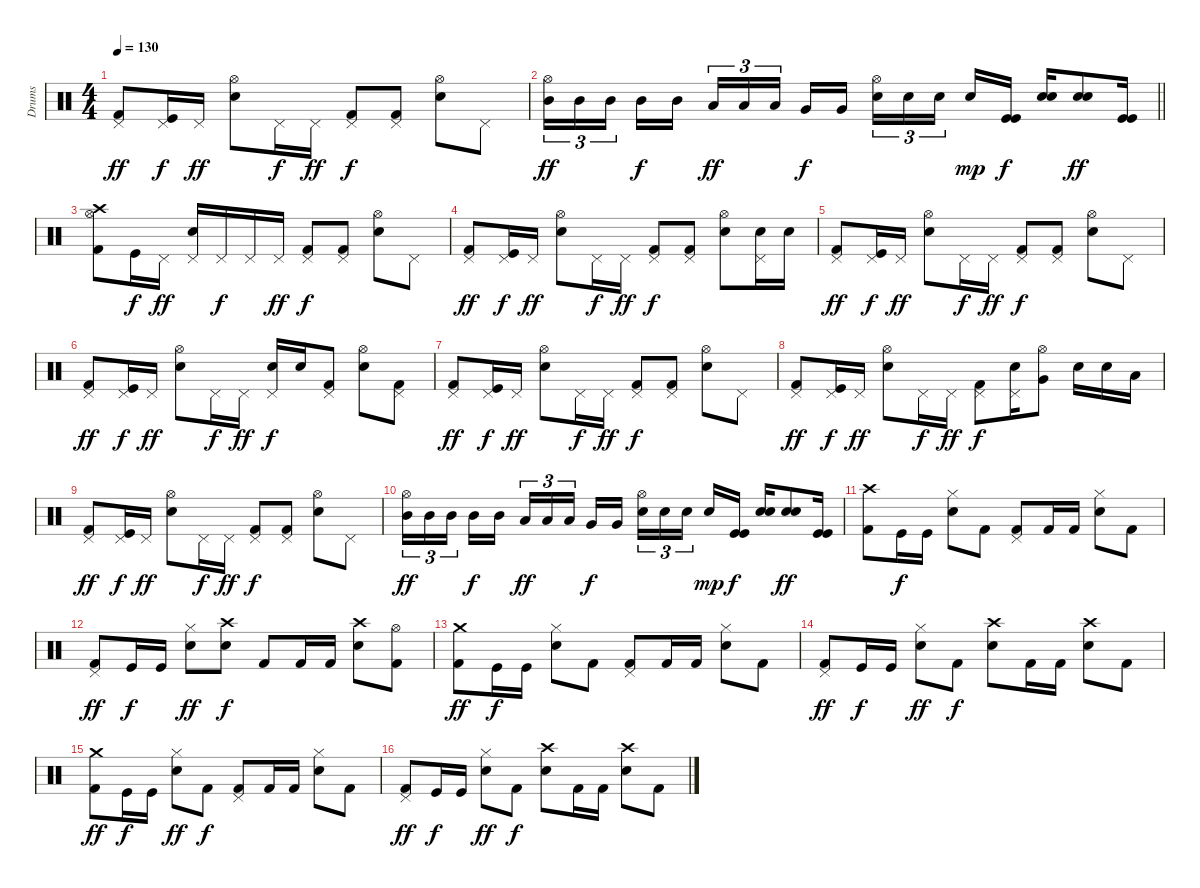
\track ("Drums" "Drums") {instrument percussion}
\staff {score}
\articulation defaults
\ts (4 4)
\tempo 130
\clef neutral
\ks c
("Pedal Hi-Hat (hit)" "Kick (hit) 2").8{dy ff} ("Pedal Hi-Hat (hit)" "Kick (hit)").16{dy f} "Pedal Hi-Hat (hit)".16{dy ff} ("Hi-Hat (open)" "Snare (hit) 2").8 "Pedal Hi-Hat (hit)".16{dy f} "Pedal Hi-Hat (hit)".16{dy ff} ("Pedal Hi-Hat (hit)" "Kick (hit) 2").8{dy f} ("Pedal Hi-Hat (hit)" "Kick (hit) 2").8 ("Hi-Hat (open)" "Snare (hit) 2").8 "Pedal Hi-Hat (hit)".8 |
\barLineRight lightlight
("Hi-Hat (open)" "Mid Tom (hit)").16{tu (3 2) dy ff} "Mid Tom (hit)".16{tu (3 2)} "Mid Tom (hit)".16{tu (3 2)} "Mid Tom (hit)".16{dy f} "Mid Tom (hit)".16 "Low Tom (hit)".16{tu (3 2) dy ff} "Low Tom (hit)".16{tu (3 2)} "Low Tom (hit)".16{tu (3 2)} "Very Low Tom (hit)".16{dy f} "Very Low Tom (hit)".16 ("Hi-Hat (open)" "Snare (hit) 2").16{tu (3 2)} "Snare (hit) 2".16{tu (3 2)} "Snare (hit) 2".16{tu (3 2)} "Snare (hit) 2".16{dy mp} ("Kick (hit)" "Kick (hit)").16{dy f} ("Snare (hit) 2" "Snare (hit) 2").16 ("Snare (hit) 2" "Snare (hit) 2").8{dy ff} ("Kick (hit)" "Kick (hit)").16 |
("Crash high (hit)" "Kick (hit) 2" "Hi-Hat (open)").8 "Kick (hit)".16{dy f} "Pedal Hi-Hat (hit)".16{dy ff} ("Pedal Hi-Hat (hit)" "Snare (hit) 2").16 "Pedal Hi-Hat (hit)".16{dy f} "Pedal Hi-Hat (hit)".16 "Pedal Hi-Hat (hit)".16{dy ff} ("Pedal Hi-Hat (hit)" "Kick (hit) 2").8{dy f} ("Pedal Hi-Hat (hit)" "Kick (hit) 2").8 ("Hi-Hat (open)" "Snare (hit) 2").8 "Pedal Hi-Hat (hit)".8 |
("Pedal Hi-Hat (hit)" "Kick (hit) 2").8{dy ff} ("Pedal Hi-Hat (hit)" "Kick (hit)").16{dy f} "Pedal Hi-Hat (hit)".16{dy ff} ("Hi-Hat (open)" "Snare (hit) 2").8 "Pedal Hi-Hat (hit)".16{dy f} "Pedal Hi-Hat (hit)".16{dy ff} ("Pedal Hi-Hat (hit)" "Kick (hit) 2").8{dy f} ("Pedal Hi-Hat (hit)" "Kick (hit) 2").8 ("Hi-Hat (open)" "Snare (hit) 2").8 ("Pedal Hi-Hat (hit)" "Snare (hit) 2").16 "Snare (hit) 2".16 |
("Pedal Hi-Hat (hit)" "Kick (hit) 2").8{dy ff} ("Pedal Hi-Hat (hit)" "Kick (hit)").16{dy f} "Pedal Hi-Hat (hit)".16{dy ff} ("Hi-Hat (open)" "Snare (hit) 2").8 "Pedal Hi-Hat (hit)".16{dy f} "Pedal Hi-Hat (hit)".16{dy ff} ("Pedal Hi-Hat (hit)" "Kick (hit) 2").8{dy f} ("Pedal Hi-Hat (hit)" "Kick (hit) 2").8 ("Hi-Hat (open)" "Snare (hit) 2").8 "Pedal Hi-Hat (hit)".8 |
("Pedal Hi-Hat (hit)" "Kick (hit) 2").8{dy ff} ("Pedal Hi-Hat (hit)" "Kick (hit)").16{dy f} "Pedal Hi-Hat (hit)".16{dy ff} ("Hi-Hat (open)" "Snare (hit) 2").8 "Pedal Hi-Hat (hit)".16{dy f} "Pedal Hi-Hat (hit)".16{dy ff} ("Pedal Hi-Hat (hit)" "Snare (hit) 2").16{dy f} "Snare (hit) 2".16 ("Pedal Hi-Hat (hit)" "Kick (hit) 2").8 ("Hi-Hat (open)" "Snare (hit) 2").8 ("Pedal Hi-Hat (hit)" "Kick (hit) 2").8 |
("Pedal Hi-Hat (hit)" "Kick (hit) 2").8{dy ff} ("Pedal Hi-Hat (hit)" "Kick (hit)").16{dy f} "Pedal Hi-Hat (hit)".16{dy ff} ("Hi-Hat (open)" "Snare (hit) 2").8 "Pedal Hi-Hat (hit)".16{dy f} "Pedal Hi-Hat (hit)".16{dy ff} ("Pedal Hi-Hat (hit)" "Kick (hit) 2").8{dy f} ("Pedal Hi-Hat (hit)" "Kick (hit) 2").8 ("Hi-Hat (open)" "Snare (hit) 2").8 "Pedal Hi-Hat (hit)".8 |
("Pedal Hi-Hat (hit)" "Kick (hit) 2").8{dy ff} ("Pedal Hi-Hat (hit)" "Kick (hit)").16{dy f} "Pedal Hi-Hat (hit)".16{dy ff} ("Hi-Hat (open)" "Snare (hit) 2").8 "Pedal Hi-Hat (hit)".16{dy f} "Pedal Hi-Hat (hit)".16{dy ff} ("Pedal Hi-Hat (hit)" "Kick (hit) 2").8{dy f} ("Pedal Hi-Hat (hit)" "Snare (hit) 2").16 ("Hi-Hat (open)" "Very Low Tom (hit)").8 "Snare (hit) 2".16 "Snare (hit) 2".16 "Low Floor Tom (hit)".16 |
("Pedal Hi-Hat (hit)" "Kick (hit) 2").8{dy ff} ("Pedal Hi-Hat (hit)" "Kick (hit)").16{dy f} "Pedal Hi-Hat (hit)".16{dy ff} ("Hi-Hat (open)" "Snare (hit) 2").8 "Pedal Hi-Hat (hit)".16{dy f} "Pedal Hi-Hat (hit)".16{dy ff} ("Pedal Hi-Hat (hit)" "Kick (hit) 2").8{dy f} ("Pedal Hi-Hat (hit)" "Kick (hit) 2").8 ("Hi-Hat (open)" "Snare (hit) 2").8 "Pedal Hi-Hat (hit)".8 |
("Hi-Hat (open)" "Mid Tom (hit)").16{tu (3 2) dy ff} "Mid Tom (hit)".16{tu (3 2)} "Mid Tom (hit)".16{tu (3 2)} "Mid Tom (hit)".16{dy f} "Mid Tom (hit)".16 "Low Tom (hit)".16{tu (3 2) dy ff} "Low Tom (hit)".16{tu (3 2)} "Low Tom (hit)".16{tu (3 2)} "Very Low Tom (hit)".16{dy f} "Very Low Tom (hit)".16 ("Hi-Hat (open)" "Snare (hit) 2").16{tu (3 2)} "Snare (hit) 2".16{tu (3 2)} "Snare (hit) 2".16{tu (3 2)} "Snare (hit) 2".16{dy mp} ("Kick (hit)" "Kick (hit)").16{dy f} ("Snare (hit) 2" "Snare (hit) 2").16 ("Snare (hit) 2" "Snare (hit) 2").8{dy ff} ("Kick (hit)" "Kick (hit)").16 |
("Crash high (hit)" "Kick (hit) 2").8 "Kick (hit)".16{dy f} "Kick (hit)".16 ("Hi-Hat (closed)" "Snare (hit) 2").8 "Kick (hit) 2".8 ("Pedal Hi-Hat (hit)" "Kick (hit) 2").8 "Kick (hit) 2".16 "Kick (hit) 2".16 ("Hi-Hat (closed)" "Snare (hit) 2").8 "Kick (hit) 2".8 |
("Pedal Hi-Hat (hit)" "Kick (hit) 2").8{dy ff} "Kick (hit)".16{dy f} "Kick (hit)".16 ("Hi-Hat (closed)" "Snare (hit) 2").8{dy ff} ("Crash high (hit)" "Snare (hit) 2").8{dy f} "Kick (hit) 2".8 "Kick (hit) 2".16 "Kick (hit) 2".16 ("Crash high (hit)" "Snare (hit) 2").8 ("Hi-Hat (open)" "Kick (hit) 2").8 |
("Crash medium (hit)" "Kick (hit) 2").8{dy ff} "Kick (hit)".16{dy f} "Kick (hit)".16 ("Hi-Hat (closed)" "Snare (hit) 2").8 "Kick (hit) 2".8 ("Pedal Hi-Hat (hit)" "Kick (hit) 2").8 "Kick (hit) 2".16 "Kick (hit) 2".16 ("Hi-Hat (closed)" "Snare (hit) 2").8 "Kick (hit) 2".8 |
("Pedal Hi-Hat (hit)" "Kick (hit) 2").8{dy ff} "Kick (hit)".16{dy f} "Kick (hit)".16 ("Hi-Hat (closed)" "Snare (hit) 2").8{dy ff} "Kick (hit) 2".8{dy f} ("Crash high (hit)" "Snare (hit) 2").8 "Kick (hit) 2".16 "Kick (hit) 2".16 ("Crash high (hit)" "Snare (hit) 2").8 "Kick (hit) 2".8 |
("Crash medium (hit)" "Kick (hit) 2").8{dy ff} "Kick (hit)".16{dy f} "Kick (hit)".16 ("Hi-Hat (closed)" "Snare (hit) 2").8{dy ff} "Kick (hit) 2".8{dy f} ("Pedal Hi-Hat (hit)" "Kick (hit) 2").8 "Kick (hit) 2".16 "Kick (hit) 2".16 ("Hi-Hat (closed)" "Snare (hit) 2").8 "Kick (hit) 2".8 |
("Pedal Hi-Hat (hit)" "Kick (hit) 2").8{dy ff} "Kick (hit)".16{dy f} "Kick (hit)".16 ("Hi-Hat (closed)" "Snare (hit) 2").8{dy ff} "Kick (hit) 2".8{dy f} ("Crash high (hit)" "Snare (hit) 2").8 "Kick (hit) 2".16 "Kick (hit) 2".16 ("Crash high (hit)" "Snare (hit) 2").8 "Kick (hit) 2".8
